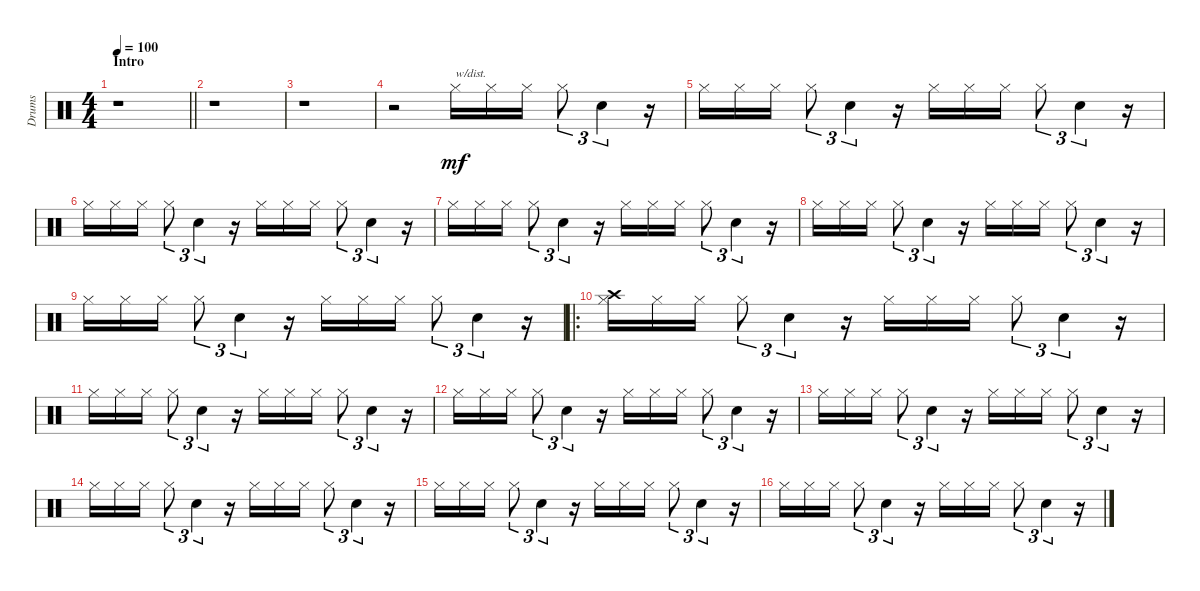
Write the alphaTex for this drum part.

\track ("Drums" "Drums") {instrument percussion}
\staff {score}
\articulation defaults
\ts (4 4)
\section ("" "Intro")
\tempo 100
\clef neutral
\barLineRight lightlight
\ks c
r.1{dy mf} |
r.1 |
r.1 |
r.2 "Hi-Hat (closed)".16{txt "w/dist."} "Hi-Hat (closed)".16 "Hi-Hat (closed)".16 "Hi-Hat (closed)".8{tu (3 2)} "Electric Snare (hit)".4{tu (3 2)} r.16 |
"Hi-Hat (closed)".16 "Hi-Hat (closed)".16 "Hi-Hat (closed)".16 "Hi-Hat (closed)".8{tu (3 2)} "Electric Snare (hit)".4{tu (3 2)} r.16 "Hi-Hat (closed)".16 "Hi-Hat (closed)".16 "Hi-Hat (closed)".16 "Hi-Hat (closed)".8{tu (3 2)} "Electric Snare (hit)".4{tu (3 2)} r.16 |
"Hi-Hat (closed)".16 "Hi-Hat (closed)".16 "Hi-Hat (closed)".16 "Hi-Hat (closed)".8{tu (3 2)} "Electric Snare (hit)".4{tu (3 2)} r.16 "Hi-Hat (closed)".16 "Hi-Hat (closed)".16 "Hi-Hat (closed)".16 "Hi-Hat (closed)".8{tu (3 2)} "Electric Snare (hit)".4{tu (3 2)} r.16 |
"Hi-Hat (closed)".16 "Hi-Hat (closed)".16 "Hi-Hat (closed)".16 "Hi-Hat (closed)".8{tu (3 2)} "Electric Snare (hit)".4{tu (3 2)} r.16 "Hi-Hat (closed)".16 "Hi-Hat (closed)".16 "Hi-Hat (closed)".16 "Hi-Hat (closed)".8{tu (3 2)} "Electric Snare (hit)".4{tu (3 2)} r.16 |
"Hi-Hat (closed)".16 "Hi-Hat (closed)".16 "Hi-Hat (closed)".16 "Hi-Hat (closed)".8{tu (3 2)} "Electric Snare (hit)".4{tu (3 2)} r.16 "Hi-Hat (closed)".16 "Hi-Hat (closed)".16 "Hi-Hat (closed)".16 "Hi-Hat (closed)".8{tu (3 2)} "Electric Snare (hit)".4{tu (3 2)} r.16 |
"Hi-Hat (closed)".16 "Hi-Hat (closed)".16 "Hi-Hat (closed)".16 "Hi-Hat (closed)".8{tu (3 2)} "Electric Snare (hit)".4{tu (3 2)} r.16 "Hi-Hat (closed)".16 "Hi-Hat (closed)".16 "Hi-Hat (closed)".16 "Hi-Hat (closed)".8{tu (3 2)} "Electric Snare (hit)".4{tu (3 2)} r.16 |
\ro
("Crash high (hit)" "Hi-Hat (closed)").16 "Hi-Hat (closed)".16 "Hi-Hat (closed)".16 "Hi-Hat (closed)".8{tu (3 2)} "Electric Snare (hit)".4{tu (3 2)} r.16 "Hi-Hat (closed)".16 "Hi-Hat (closed)".16 "Hi-Hat (closed)".16 "Hi-Hat (closed)".8{tu (3 2)} "Electric Snare (hit)".4{tu (3 2)} r.16 |
"Hi-Hat (closed)".16 "Hi-Hat (closed)".16 "Hi-Hat (closed)".16 "Hi-Hat (closed)".8{tu (3 2)} "Electric Snare (hit)".4{tu (3 2)} r.16 "Hi-Hat (closed)".16 "Hi-Hat (closed)".16 "Hi-Hat (closed)".16 "Hi-Hat (closed)".8{tu (3 2)} "Electric Snare (hit)".4{tu (3 2)} r.16 |
"Hi-Hat (closed)".16 "Hi-Hat (closed)".16 "Hi-Hat (closed)".16 "Hi-Hat (closed)".8{tu (3 2)} "Electric Snare (hit)".4{tu (3 2)} r.16 "Hi-Hat (closed)".16 "Hi-Hat (closed)".16 "Hi-Hat (closed)".16 "Hi-Hat (closed)".8{tu (3 2)} "Electric Snare (hit)".4{tu (3 2)} r.16 |
"Hi-Hat (closed)".16 "Hi-Hat (closed)".16 "Hi-Hat (closed)".16 "Hi-Hat (closed)".8{tu (3 2)} "Electric Snare (hit)".4{tu (3 2)} r.16 "Hi-Hat (closed)".16 "Hi-Hat (closed)".16 "Hi-Hat (closed)".16 "Hi-Hat (closed)".8{tu (3 2)} "Electric Snare (hit)".4{tu (3 2)} r.16 |
"Hi-Hat (closed)".16 "Hi-Hat (closed)".16 "Hi-Hat (closed)".16 "Hi-Hat (closed)".8{tu (3 2)} "Electric Snare (hit)".4{tu (3 2)} r.16 "Hi-Hat (closed)".16 "Hi-Hat (closed)".16 "Hi-Hat (closed)".16 "Hi-Hat (closed)".8{tu (3 2)} "Electric Snare (hit)".4{tu (3 2)} r.16 |
"Hi-Hat (closed)".16 "Hi-Hat (closed)".16 "Hi-Hat (closed)".16 "Hi-Hat (closed)".8{tu (3 2)} "Electric Snare (hit)".4{tu (3 2)} r.16 "Hi-Hat (closed)".16 "Hi-Hat (closed)".16 "Hi-Hat (closed)".16 "Hi-Hat (closed)".8{tu (3 2)} "Electric Snare (hit)".4{tu (3 2)} r.16 |
"Hi-Hat (closed)".16 "Hi-Hat (closed)".16 "Hi-Hat (closed)".16 "Hi-Hat (closed)".8{tu (3 2)} "Electric Snare (hit)".4{tu (3 2)} r.16 "Hi-Hat (closed)".16 "Hi-Hat (closed)".16 "Hi-Hat (closed)".16 "Hi-Hat (closed)".8{tu (3 2)} "Electric Snare (hit)".4{tu (3 2)} r.16
